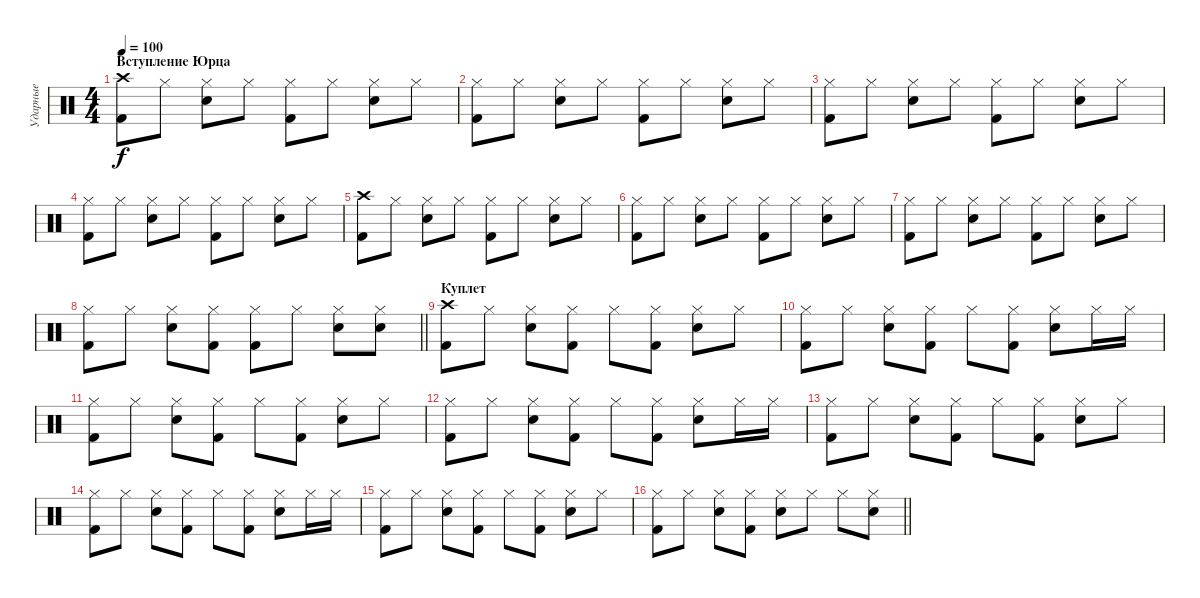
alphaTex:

\track ("Ударные" "Ударные") {instrument percussion}
\staff {score}
\articulation defaults
\ts (4 4)
\section ("" "Вступление Юрца")
\tempo 100
\clef neutral
\ks c
("Crash high (hit)" "Kick (hit) 2").8{dy f} "Hi-Hat (closed)".8 ("Hi-Hat (closed)" "Electric Snare (hit)").8 "Hi-Hat (closed)".8 ("Hi-Hat (closed)" "Kick (hit) 2").8 "Hi-Hat (closed)".8 ("Hi-Hat (closed)" "Electric Snare (hit)").8 "Hi-Hat (closed)".8 |
("Hi-Hat (closed)" "Kick (hit) 2").8 "Hi-Hat (closed)".8 ("Hi-Hat (closed)" "Electric Snare (hit)").8 "Hi-Hat (closed)".8 ("Hi-Hat (closed)" "Kick (hit) 2").8 "Hi-Hat (closed)".8 ("Hi-Hat (closed)" "Electric Snare (hit)").8 "Hi-Hat (closed)".8 |
("Hi-Hat (closed)" "Kick (hit) 2").8 "Hi-Hat (closed)".8 ("Hi-Hat (closed)" "Electric Snare (hit)").8 "Hi-Hat (closed)".8 ("Hi-Hat (closed)" "Kick (hit) 2").8 "Hi-Hat (closed)".8 ("Hi-Hat (closed)" "Electric Snare (hit)").8 "Hi-Hat (closed)".8 |
("Hi-Hat (closed)" "Kick (hit) 2").8 "Hi-Hat (closed)".8 ("Hi-Hat (closed)" "Electric Snare (hit)").8 "Hi-Hat (closed)".8 ("Hi-Hat (closed)" "Kick (hit) 2").8 "Hi-Hat (closed)".8 ("Hi-Hat (closed)" "Electric Snare (hit)").8 "Hi-Hat (closed)".8 |
("Crash high (hit)" "Kick (hit) 2").8 "Hi-Hat (closed)".8 ("Hi-Hat (closed)" "Electric Snare (hit)").8 "Hi-Hat (closed)".8 ("Hi-Hat (closed)" "Kick (hit) 2").8 "Hi-Hat (closed)".8 ("Hi-Hat (closed)" "Electric Snare (hit)").8 "Hi-Hat (closed)".8 |
("Hi-Hat (closed)" "Kick (hit) 2").8 "Hi-Hat (closed)".8 ("Hi-Hat (closed)" "Electric Snare (hit)").8 "Hi-Hat (closed)".8 ("Hi-Hat (closed)" "Kick (hit) 2").8 "Hi-Hat (closed)".8 ("Hi-Hat (closed)" "Electric Snare (hit)").8 "Hi-Hat (closed)".8 |
("Hi-Hat (closed)" "Kick (hit) 2").8 "Hi-Hat (closed)".8 ("Hi-Hat (closed)" "Electric Snare (hit)").8 "Hi-Hat (closed)".8 ("Hi-Hat (closed)" "Kick (hit) 2").8 "Hi-Hat (closed)".8 ("Hi-Hat (closed)" "Electric Snare (hit)").8 "Hi-Hat (closed)".8 |
\barLineRight lightlight
("Hi-Hat (closed)" "Kick (hit) 2").8 "Hi-Hat (closed)".8 ("Hi-Hat (closed)" "Electric Snare (hit)").8 ("Hi-Hat (closed)" "Kick (hit) 2").8 ("Hi-Hat (closed)" "Kick (hit) 2").8 "Hi-Hat (closed)".8 ("Hi-Hat (closed)" "Electric Snare (hit)").8 ("Hi-Hat (closed)" "Electric Snare (hit)").8 |
\section ("" "Куплет")
("Crash high (hit)" "Kick (hit) 2").8 "Hi-Hat (closed)".8 ("Hi-Hat (closed)" "Electric Snare (hit)").8 ("Hi-Hat (closed)" "Kick (hit) 2").8 "Hi-Hat (closed)".8 ("Hi-Hat (closed)" "Kick (hit) 2").8 ("Hi-Hat (closed)" "Electric Snare (hit)").8 "Hi-Hat (closed)".8 |
("Hi-Hat (closed)" "Kick (hit) 2").8 "Hi-Hat (closed)".8 ("Hi-Hat (closed)" "Electric Snare (hit)").8 ("Hi-Hat (closed)" "Kick (hit) 2").8 "Hi-Hat (closed)".8 ("Hi-Hat (closed)" "Kick (hit) 2").8 ("Hi-Hat (closed)" "Electric Snare (hit)").8 "Hi-Hat (closed)".16 "Hi-Hat (closed)".16 |
("Hi-Hat (closed)" "Kick (hit) 2").8 "Hi-Hat (closed)".8 ("Hi-Hat (closed)" "Electric Snare (hit)").8 ("Hi-Hat (closed)" "Kick (hit) 2").8 "Hi-Hat (closed)".8 ("Hi-Hat (closed)" "Kick (hit) 2").8 ("Hi-Hat (closed)" "Electric Snare (hit)").8 "Hi-Hat (closed)".8 |
("Hi-Hat (closed)" "Kick (hit) 2").8 "Hi-Hat (closed)".8 ("Hi-Hat (closed)" "Electric Snare (hit)").8 ("Hi-Hat (closed)" "Kick (hit) 2").8 "Hi-Hat (closed)".8 ("Hi-Hat (closed)" "Kick (hit) 2").8 ("Hi-Hat (closed)" "Electric Snare (hit)").8 "Hi-Hat (closed)".16 "Hi-Hat (closed)".16 |
("Hi-Hat (closed)" "Kick (hit) 2").8 "Hi-Hat (closed)".8 ("Hi-Hat (closed)" "Electric Snare (hit)").8 ("Hi-Hat (closed)" "Kick (hit) 2").8 "Hi-Hat (closed)".8 ("Hi-Hat (closed)" "Kick (hit) 2").8 ("Hi-Hat (closed)" "Electric Snare (hit)").8 "Hi-Hat (closed)".8 |
("Hi-Hat (closed)" "Kick (hit) 2").8 "Hi-Hat (closed)".8 ("Hi-Hat (closed)" "Electric Snare (hit)").8 ("Hi-Hat (closed)" "Kick (hit) 2").8 "Hi-Hat (closed)".8 ("Hi-Hat (closed)" "Kick (hit) 2").8 ("Hi-Hat (closed)" "Electric Snare (hit)").8 "Hi-Hat (closed)".16 "Hi-Hat (closed)".16 |
("Hi-Hat (closed)" "Kick (hit) 2").8 "Hi-Hat (closed)".8 ("Hi-Hat (closed)" "Electric Snare (hit)").8 ("Hi-Hat (closed)" "Kick (hit) 2").8 "Hi-Hat (closed)".8 ("Hi-Hat (closed)" "Kick (hit) 2").8 ("Hi-Hat (closed)" "Electric Snare (hit)").8 "Hi-Hat (closed)".8 |
\barLineRight lightlight
("Hi-Hat (closed)" "Kick (hit) 2").8 "Hi-Hat (closed)".8 ("Hi-Hat (closed)" "Electric Snare (hit)").8 ("Hi-Hat (closed)" "Kick (hit) 2").8 ("Hi-Hat (closed)" "Electric Snare (hit)").8 "Hi-Hat (closed)".8 "Hi-Hat (closed)".8 ("Hi-Hat (closed)" "Electric Snare (hit)").8
